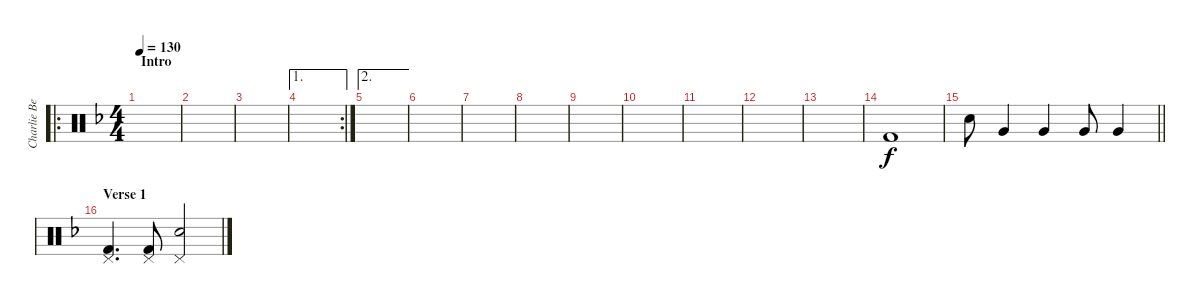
\track ("Charlie Benante" "Charlie Be") {instrument percussion}
\staff {score}
\articulation defaults
\ro
\ts (4 4)
\section ("" "Intro")
\tempo 130
\clef neutral
\ks f
|
|
|
\ae 1
\rc 2
|
\ae 2
|
|
|
|
|
|
|
|
|
"Kick (hit) 2".1 |
\barLineRight lightlight "Electric Snare (hit)".8 "Very Low Tom (hit)".4 "Very Low Tom (hit)".4 "Very Low Tom (hit)".8 "Very Low Tom (hit)".4
|
\section ("" "Verse 1")
("Pedal Hi-Hat (hit)" "Kick (hit) 2").4{d} ("Pedal Hi-Hat (hit)" "Kick (hit) 2").8 ("Pedal Hi-Hat (hit)" "Electric Snare (hit)").2
